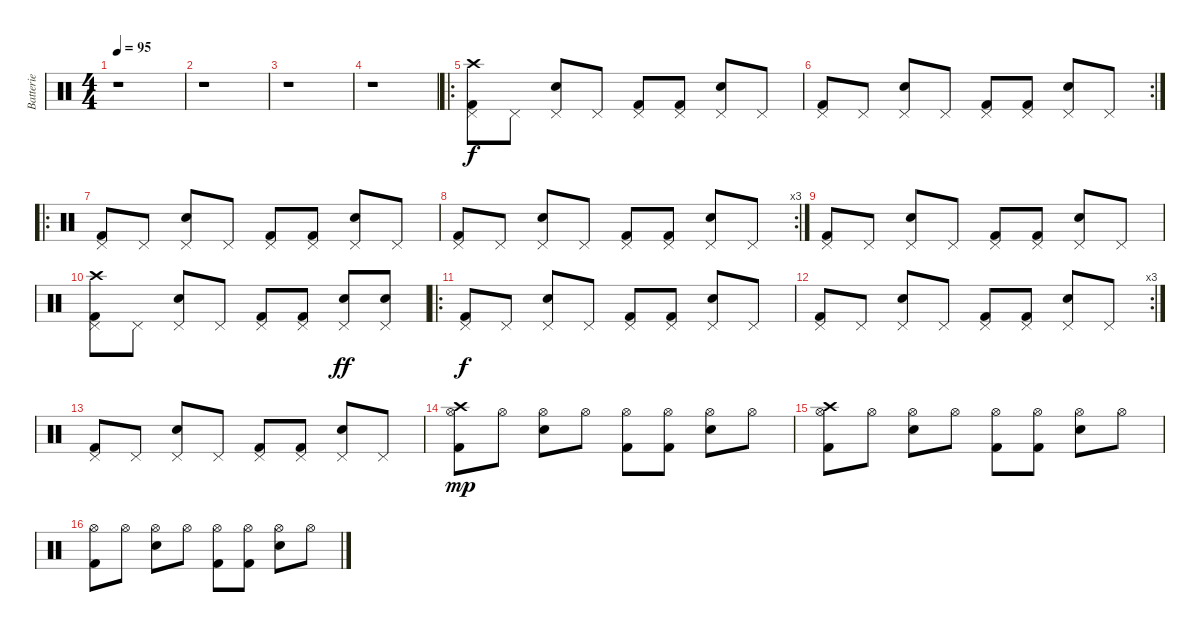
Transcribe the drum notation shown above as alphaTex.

\track ("Batterie" "Batterie") {instrument percussion}
\staff {score}
\articulation defaults
\ts (4 4)
\tempo 95
\clef neutral
\ks c
r.1{dy f} |
r.1 |
r.1 |
r.1 |
\ro
("Pedal Hi-Hat (hit)" "Kick (hit) 2" "Crash high (hit)").8 "Pedal Hi-Hat (hit)".8 ("Pedal Hi-Hat (hit)" "Electric Snare (hit)").8 "Pedal Hi-Hat (hit)".8 ("Pedal Hi-Hat (hit)" "Kick (hit) 2").8 ("Pedal Hi-Hat (hit)" "Kick (hit) 2").8 ("Pedal Hi-Hat (hit)" "Electric Snare (hit)").8 "Pedal Hi-Hat (hit)".8 |
\rc 2
("Pedal Hi-Hat (hit)" "Kick (hit) 2").8 "Pedal Hi-Hat (hit)".8 ("Pedal Hi-Hat (hit)" "Electric Snare (hit)").8 "Pedal Hi-Hat (hit)".8 ("Pedal Hi-Hat (hit)" "Kick (hit) 2").8 ("Pedal Hi-Hat (hit)" "Kick (hit) 2").8 ("Pedal Hi-Hat (hit)" "Electric Snare (hit)").8 "Pedal Hi-Hat (hit)".8 |
\ro
("Pedal Hi-Hat (hit)" "Kick (hit) 2").8 "Pedal Hi-Hat (hit)".8 ("Pedal Hi-Hat (hit)" "Electric Snare (hit)").8 "Pedal Hi-Hat (hit)".8 ("Pedal Hi-Hat (hit)" "Kick (hit) 2").8 ("Pedal Hi-Hat (hit)" "Kick (hit) 2").8 ("Pedal Hi-Hat (hit)" "Electric Snare (hit)").8 "Pedal Hi-Hat (hit)".8 |
\rc 3
("Pedal Hi-Hat (hit)" "Kick (hit) 2").8 "Pedal Hi-Hat (hit)".8 ("Pedal Hi-Hat (hit)" "Electric Snare (hit)").8 "Pedal Hi-Hat (hit)".8 ("Pedal Hi-Hat (hit)" "Kick (hit) 2").8 ("Pedal Hi-Hat (hit)" "Kick (hit) 2").8 ("Pedal Hi-Hat (hit)" "Electric Snare (hit)").8 "Pedal Hi-Hat (hit)".8 |
("Pedal Hi-Hat (hit)" "Kick (hit) 2").8 "Pedal Hi-Hat (hit)".8 ("Pedal Hi-Hat (hit)" "Electric Snare (hit)").8 "Pedal Hi-Hat (hit)".8 ("Pedal Hi-Hat (hit)" "Kick (hit) 2").8 ("Pedal Hi-Hat (hit)" "Kick (hit) 2").8 ("Pedal Hi-Hat (hit)" "Electric Snare (hit)").8 "Pedal Hi-Hat (hit)".8 |
("Pedal Hi-Hat (hit)" "Kick (hit) 2" "Crash high (hit)").8 "Pedal Hi-Hat (hit)".8 ("Pedal Hi-Hat (hit)" "Electric Snare (hit)").8 "Pedal Hi-Hat (hit)".8 ("Pedal Hi-Hat (hit)" "Kick (hit) 2").8 ("Pedal Hi-Hat (hit)" "Kick (hit) 2").8 ("Pedal Hi-Hat (hit)" "Electric Snare (hit)").8{dy ff} ("Pedal Hi-Hat (hit)" "Electric Snare (hit)").8 |
\ro
("Pedal Hi-Hat (hit)" "Kick (hit) 2").8{dy f} "Pedal Hi-Hat (hit)".8 ("Pedal Hi-Hat (hit)" "Electric Snare (hit)").8 "Pedal Hi-Hat (hit)".8 ("Pedal Hi-Hat (hit)" "Kick (hit) 2").8 ("Pedal Hi-Hat (hit)" "Kick (hit) 2").8 ("Pedal Hi-Hat (hit)" "Electric Snare (hit)").8 "Pedal Hi-Hat (hit)".8 |
\rc 3
("Pedal Hi-Hat (hit)" "Kick (hit) 2").8 "Pedal Hi-Hat (hit)".8 ("Pedal Hi-Hat (hit)" "Electric Snare (hit)").8 "Pedal Hi-Hat (hit)".8 ("Pedal Hi-Hat (hit)" "Kick (hit) 2").8 ("Pedal Hi-Hat (hit)" "Kick (hit) 2").8 ("Pedal Hi-Hat (hit)" "Electric Snare (hit)").8 "Pedal Hi-Hat (hit)".8 |
("Pedal Hi-Hat (hit)" "Kick (hit) 2").8 "Pedal Hi-Hat (hit)".8 ("Pedal Hi-Hat (hit)" "Electric Snare (hit)").8 "Pedal Hi-Hat (hit)".8 ("Pedal Hi-Hat (hit)" "Kick (hit) 2").8 ("Pedal Hi-Hat (hit)" "Kick (hit) 2").8 ("Pedal Hi-Hat (hit)" "Electric Snare (hit)").8 "Pedal Hi-Hat (hit)".8 |
("Hi-Hat (open)" "Kick (hit) 2" "Crash high (hit)").8{dy mp} "Hi-Hat (open)".8 ("Hi-Hat (open)" "Electric Snare (hit)").8 "Hi-Hat (open)".8 ("Hi-Hat (open)" "Kick (hit) 2").8 ("Hi-Hat (open)" "Kick (hit) 2").8 ("Hi-Hat (open)" "Electric Snare (hit)").8 "Hi-Hat (open)".8 |
("Hi-Hat (open)" "Kick (hit) 2" "Crash high (hit)").8 "Hi-Hat (open)".8 ("Hi-Hat (open)" "Electric Snare (hit)").8 "Hi-Hat (open)".8 ("Hi-Hat (open)" "Kick (hit) 2").8 ("Hi-Hat (open)" "Kick (hit) 2").8 ("Hi-Hat (open)" "Electric Snare (hit)").8 "Hi-Hat (open)".8 |
("Hi-Hat (open)" "Kick (hit) 2").8 "Hi-Hat (open)".8 ("Hi-Hat (open)" "Electric Snare (hit)").8 "Hi-Hat (open)".8 ("Hi-Hat (open)" "Kick (hit) 2").8 ("Hi-Hat (open)" "Kick (hit) 2").8 ("Hi-Hat (open)" "Electric Snare (hit)").8 "Hi-Hat (open)".8
